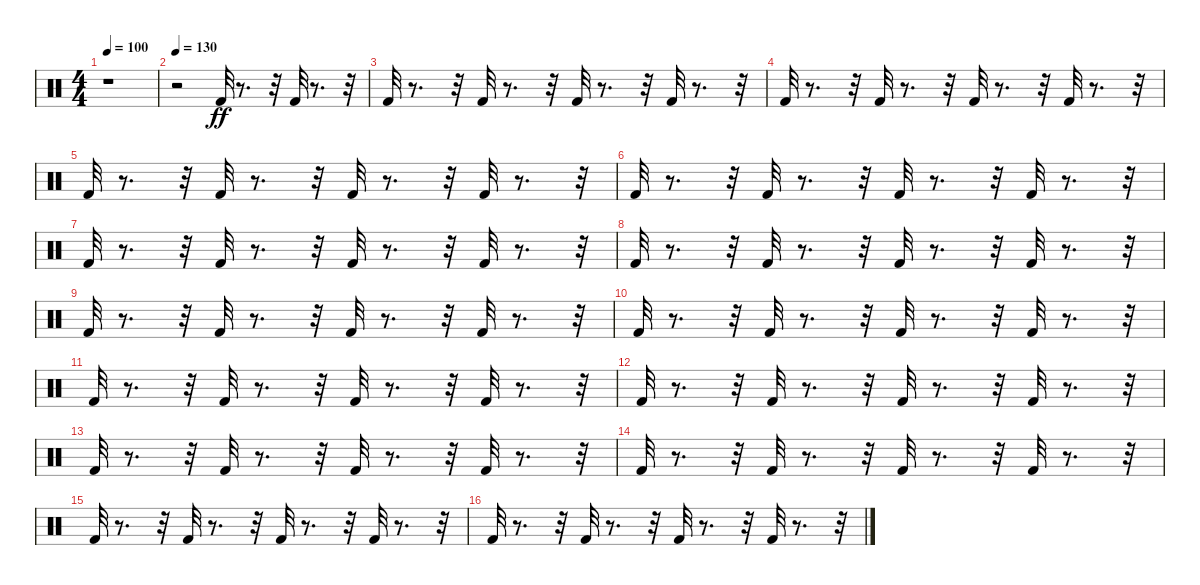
\track "" {instrument percussion}
\staff {score}
\articulation defaults
\ts (4 4)
\tempo 100
\clef neutral
\ks c
r.1{dy ff} |
\tempo 130
r.2 "Kick (hit) 2".32 r.8{d} r.32 "Kick (hit) 2".32 r.8{d} r.32 |
"Kick (hit) 2".32 r.8{d} r.32 "Kick (hit) 2".32 r.8{d} r.32 "Kick (hit) 2".32 r.8{d} r.32 "Kick (hit) 2".32 r.8{d} r.32 |
"Kick (hit) 2".32 r.8{d} r.32 "Kick (hit) 2".32 r.8{d} r.32 "Kick (hit) 2".32 r.8{d} r.32 "Kick (hit) 2".32 r.8{d} r.32 |
"Kick (hit) 2".32 r.8{d} r.32 "Kick (hit) 2".32 r.8{d} r.32 "Kick (hit) 2".32 r.8{d} r.32 "Kick (hit) 2".32 r.8{d} r.32 |
"Kick (hit) 2".32 r.8{d} r.32 "Kick (hit) 2".32 r.8{d} r.32 "Kick (hit) 2".32 r.8{d} r.32 "Kick (hit) 2".32 r.8{d} r.32 |
"Kick (hit) 2".32 r.8{d} r.32 "Kick (hit) 2".32 r.8{d} r.32 "Kick (hit) 2".32 r.8{d} r.32 "Kick (hit) 2".32 r.8{d} r.32 |
"Kick (hit) 2".32 r.8{d} r.32 "Kick (hit) 2".32 r.8{d} r.32 "Kick (hit) 2".32 r.8{d} r.32 "Kick (hit) 2".32 r.8{d} r.32 |
"Kick (hit) 2".32 r.8{d} r.32 "Kick (hit) 2".32 r.8{d} r.32 "Kick (hit) 2".32 r.8{d} r.32 "Kick (hit) 2".32 r.8{d} r.32 |
"Kick (hit) 2".32 r.8{d} r.32 "Kick (hit) 2".32 r.8{d} r.32 "Kick (hit) 2".32 r.8{d} r.32 "Kick (hit) 2".32 r.8{d} r.32 |
"Kick (hit) 2".32 r.8{d} r.32 "Kick (hit) 2".32 r.8{d} r.32 "Kick (hit) 2".32 r.8{d} r.32 "Kick (hit) 2".32 r.8{d} r.32 |
"Kick (hit) 2".32 r.8{d} r.32 "Kick (hit) 2".32 r.8{d} r.32 "Kick (hit) 2".32 r.8{d} r.32 "Kick (hit) 2".32 r.8{d} r.32 |
"Kick (hit) 2".32 r.8{d} r.32 "Kick (hit) 2".32 r.8{d} r.32 "Kick (hit) 2".32 r.8{d} r.32 "Kick (hit) 2".32 r.8{d} r.32 |
"Kick (hit) 2".32 r.8{d} r.32 "Kick (hit) 2".32 r.8{d} r.32 "Kick (hit) 2".32 r.8{d} r.32 "Kick (hit) 2".32 r.8{d} r.32 |
"Kick (hit) 2".32 r.8{d} r.32 "Kick (hit) 2".32 r.8{d} r.32 "Kick (hit) 2".32 r.8{d} r.32 "Kick (hit) 2".32 r.8{d} r.32 |
"Kick (hit) 2".32 r.8{d} r.32 "Kick (hit) 2".32 r.8{d} r.32 "Kick (hit) 2".32 r.8{d} r.32 "Kick (hit) 2".32 r.8{d} r.32
